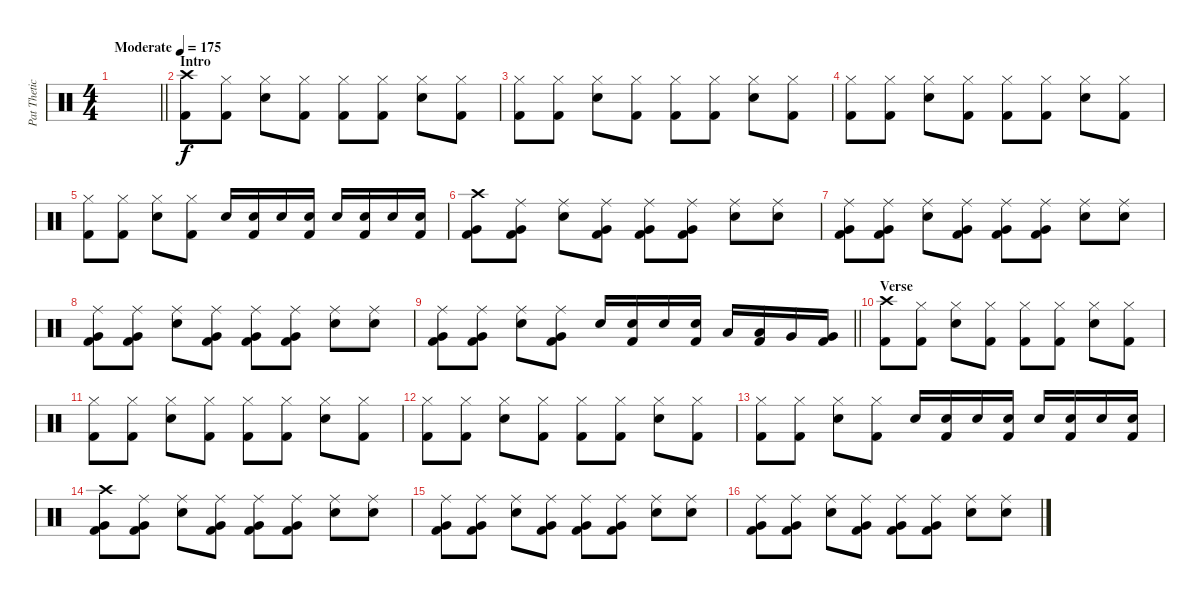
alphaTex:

\track ("Pat Thetic" "Pat Thetic") {instrument percussion}
\staff {score}
\articulation defaults
\ts (4 4)
\tempo (175 "Moderate")
\clef neutral
\barLineRight lightlight
\ks c
|
\section ("" "Intro")
("Crash high (hit)" "Kick (hit) 2").8 ("Hi-Hat (closed)" "Kick (hit) 2").8 ("Hi-Hat (closed)" "Electric Snare (hit)").8 ("Hi-Hat (closed)" "Kick (hit) 2").8 ("Hi-Hat (closed)" "Kick (hit) 2").8 ("Hi-Hat (closed)" "Kick (hit) 2").8 ("Hi-Hat (closed)" "Electric Snare (hit)").8 ("Hi-Hat (closed)" "Kick (hit) 2").8 |
("Hi-Hat (closed)" "Kick (hit) 2").8 ("Hi-Hat (closed)" "Kick (hit) 2").8 ("Hi-Hat (closed)" "Electric Snare (hit)").8 ("Hi-Hat (closed)" "Kick (hit) 2").8 ("Hi-Hat (closed)" "Kick (hit) 2").8 ("Hi-Hat (closed)" "Kick (hit) 2").8 ("Hi-Hat (closed)" "Electric Snare (hit)").8 ("Hi-Hat (closed)" "Kick (hit) 2").8 |
("Hi-Hat (closed)" "Kick (hit) 2").8 ("Hi-Hat (closed)" "Kick (hit) 2").8 ("Hi-Hat (closed)" "Electric Snare (hit)").8 ("Hi-Hat (closed)" "Kick (hit) 2").8 ("Hi-Hat (closed)" "Kick (hit) 2").8 ("Hi-Hat (closed)" "Kick (hit) 2").8 ("Hi-Hat (closed)" "Electric Snare (hit)").8 ("Hi-Hat (closed)" "Kick (hit) 2").8 |
("Hi-Hat (closed)" "Kick (hit) 2").8 ("Hi-Hat (closed)" "Kick (hit) 2").8 ("Hi-Hat (closed)" "Electric Snare (hit)").8 ("Hi-Hat (closed)" "Kick (hit) 2").8 "Electric Snare (hit)".16 ("Electric Snare (hit)" "Kick (hit) 2").16 "Electric Snare (hit)".16 ("Electric Snare (hit)" "Kick (hit) 2").16 "Electric Snare (hit)".16 ("Electric Snare (hit)" "Kick (hit) 2").16 "Electric Snare (hit)".16 ("Electric Snare (hit)" "Kick (hit) 2").16 |
("Crash high (hit)" "Very Low Tom (hit)" "Kick (hit) 2").8 ("Ride (middle)" "Very Low Tom (hit)" "Kick (hit) 2").8 ("Ride (middle)" "Electric Snare (hit)").8 ("Ride (middle)" "Very Low Tom (hit)" "Kick (hit) 2").8 ("Ride (middle)" "Very Low Tom (hit)" "Kick (hit) 2").8 ("Ride (middle)" "Very Low Tom (hit)" "Kick (hit) 2").8 ("Ride (middle)" "Electric Snare (hit)").8 ("Ride (middle)" "Electric Snare (hit)").8 |
("Ride (middle)" "Very Low Tom (hit)" "Kick (hit) 2").8 ("Ride (middle)" "Very Low Tom (hit)" "Kick (hit) 2").8 ("Ride (middle)" "Electric Snare (hit)").8 ("Ride (middle)" "Very Low Tom (hit)" "Kick (hit) 2").8 ("Ride (middle)" "Very Low Tom (hit)" "Kick (hit) 2").8 ("Ride (middle)" "Very Low Tom (hit)" "Kick (hit) 2").8 ("Ride (middle)" "Electric Snare (hit)").8 ("Ride (middle)" "Electric Snare (hit)").8 |
("Ride (middle)" "Very Low Tom (hit)" "Kick (hit) 2").8 ("Ride (middle)" "Very Low Tom (hit)" "Kick (hit) 2").8 ("Ride (middle)" "Electric Snare (hit)").8 ("Ride (middle)" "Very Low Tom (hit)" "Kick (hit) 2").8 ("Ride (middle)" "Very Low Tom (hit)" "Kick (hit) 2").8 ("Ride (middle)" "Very Low Tom (hit)" "Kick (hit) 2").8 ("Ride (middle)" "Electric Snare (hit)").8 ("Ride (middle)" "Electric Snare (hit)").8 |
\barLineRight lightlight
("Ride (middle)" "Very Low Tom (hit)" "Kick (hit) 2").8 ("Ride (middle)" "Very Low Tom (hit)" "Kick (hit) 2").8 ("Ride (middle)" "Electric Snare (hit)").8 ("Ride (middle)" "Very Low Tom (hit)" "Kick (hit) 2").8 "Electric Snare (hit)".16 ("Electric Snare (hit)" "Kick (hit) 2").16 "Electric Snare (hit)".16 ("Electric Snare (hit)" "Kick (hit) 2").16 "Low Tom (hit)".16 ("Low Tom (hit)" "Kick (hit) 2").16 "Very Low Tom (hit)".16 ("Very Low Tom (hit)" "Kick (hit) 2").16 |
\section ("" "Verse")
("Crash high (hit)" "Kick (hit) 2").8 ("Hi-Hat (closed)" "Kick (hit) 2").8 ("Hi-Hat (closed)" "Electric Snare (hit)").8 ("Hi-Hat (closed)" "Kick (hit) 2").8 ("Hi-Hat (closed)" "Kick (hit) 2").8 ("Hi-Hat (closed)" "Kick (hit) 2").8 ("Hi-Hat (closed)" "Electric Snare (hit)").8 ("Hi-Hat (closed)" "Kick (hit) 2").8 |
("Hi-Hat (closed)" "Kick (hit) 2").8 ("Hi-Hat (closed)" "Kick (hit) 2").8 ("Hi-Hat (closed)" "Electric Snare (hit)").8 ("Hi-Hat (closed)" "Kick (hit) 2").8 ("Hi-Hat (closed)" "Kick (hit) 2").8 ("Hi-Hat (closed)" "Kick (hit) 2").8 ("Hi-Hat (closed)" "Electric Snare (hit)").8 ("Hi-Hat (closed)" "Kick (hit) 2").8 |
("Hi-Hat (closed)" "Kick (hit) 2").8 ("Hi-Hat (closed)" "Kick (hit) 2").8 ("Hi-Hat (closed)" "Electric Snare (hit)").8 ("Hi-Hat (closed)" "Kick (hit) 2").8 ("Hi-Hat (closed)" "Kick (hit) 2").8 ("Hi-Hat (closed)" "Kick (hit) 2").8 ("Hi-Hat (closed)" "Electric Snare (hit)").8 ("Hi-Hat (closed)" "Kick (hit) 2").8 |
("Hi-Hat (closed)" "Kick (hit) 2").8 ("Hi-Hat (closed)" "Kick (hit) 2").8 ("Hi-Hat (closed)" "Electric Snare (hit)").8 ("Hi-Hat (closed)" "Kick (hit) 2").8 "Electric Snare (hit)".16 ("Electric Snare (hit)" "Kick (hit) 2").16 "Electric Snare (hit)".16 ("Electric Snare (hit)" "Kick (hit) 2").16 "Electric Snare (hit)".16 ("Electric Snare (hit)" "Kick (hit) 2").16 "Electric Snare (hit)".16 ("Electric Snare (hit)" "Kick (hit) 2").16 |
("Crash high (hit)" "Very Low Tom (hit)" "Kick (hit) 2").8 ("Ride (middle)" "Very Low Tom (hit)" "Kick (hit) 2").8 ("Ride (middle)" "Electric Snare (hit)").8 ("Ride (middle)" "Very Low Tom (hit)" "Kick (hit) 2").8 ("Ride (middle)" "Very Low Tom (hit)" "Kick (hit) 2").8 ("Ride (middle)" "Very Low Tom (hit)" "Kick (hit) 2").8 ("Ride (middle)" "Electric Snare (hit)").8 ("Ride (middle)" "Electric Snare (hit)").8 |
("Ride (middle)" "Very Low Tom (hit)" "Kick (hit) 2").8 ("Ride (middle)" "Very Low Tom (hit)" "Kick (hit) 2").8 ("Ride (middle)" "Electric Snare (hit)").8 ("Ride (middle)" "Very Low Tom (hit)" "Kick (hit) 2").8 ("Ride (middle)" "Very Low Tom (hit)" "Kick (hit) 2").8 ("Ride (middle)" "Very Low Tom (hit)" "Kick (hit) 2").8 ("Ride (middle)" "Electric Snare (hit)").8 ("Ride (middle)" "Electric Snare (hit)").8 |
("Ride (middle)" "Very Low Tom (hit)" "Kick (hit) 2").8 ("Ride (middle)" "Very Low Tom (hit)" "Kick (hit) 2").8 ("Ride (middle)" "Electric Snare (hit)").8 ("Ride (middle)" "Very Low Tom (hit)" "Kick (hit) 2").8 ("Ride (middle)" "Very Low Tom (hit)" "Kick (hit) 2").8 ("Ride (middle)" "Very Low Tom (hit)" "Kick (hit) 2").8 ("Ride (middle)" "Electric Snare (hit)").8 ("Ride (middle)" "Electric Snare (hit)").8
